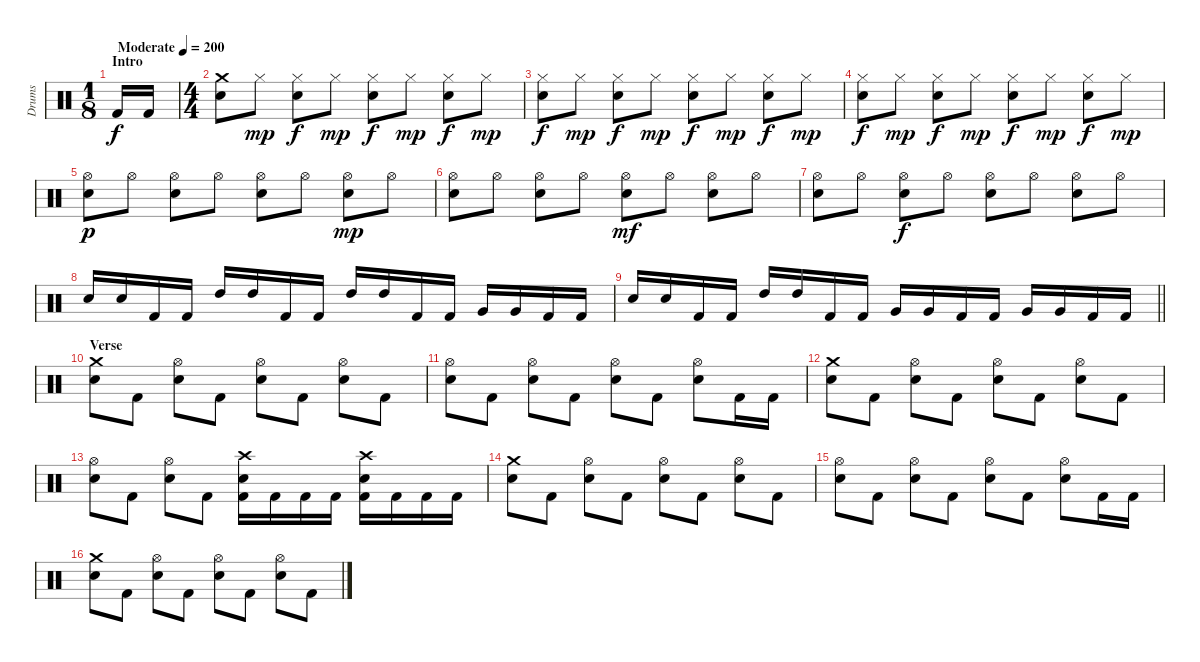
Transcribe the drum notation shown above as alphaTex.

\track ("Drums" "Drums") {instrument percussion}
\staff {score}
\articulation defaults
\ts (1 8)
\section ("" "Intro")
\tempo (200 "Moderate")
\clef neutral
\ks c "Kick (hit) 2".16{dy f} "Kick (hit) 2".16
|
\ts (4 4)
("Crash medium (hit)" "Snare (hit) 2").8 "Hi-Hat (closed)".8{dy mp} ("Hi-Hat (closed)" "Snare (hit) 2").8{dy f} "Hi-Hat (closed)".8{dy mp} ("Hi-Hat (closed)" "Snare (hit) 2").8{dy f} "Hi-Hat (closed)".8{dy mp} ("Hi-Hat (closed)" "Snare (hit) 2").8{dy f} "Hi-Hat (closed)".8{dy mp} |
("Hi-Hat (closed)" "Snare (hit) 2").8{dy f} "Hi-Hat (closed)".8{dy mp} ("Hi-Hat (closed)" "Snare (hit) 2").8{dy f} "Hi-Hat (closed)".8{dy mp} ("Hi-Hat (closed)" "Snare (hit) 2").8{dy f} "Hi-Hat (closed)".8{dy mp} ("Hi-Hat (closed)" "Snare (hit) 2").8{dy f} "Hi-Hat (closed)".8{dy mp} |
("Hi-Hat (closed)" "Snare (hit) 2").8{dy f} "Hi-Hat (closed)".8{dy mp} ("Hi-Hat (closed)" "Snare (hit) 2").8{dy f} "Hi-Hat (closed)".8{dy mp} ("Hi-Hat (closed)" "Snare (hit) 2").8{dy f} "Hi-Hat (closed)".8{dy mp} ("Hi-Hat (closed)" "Snare (hit) 2").8{dy f} "Hi-Hat (closed)".8{dy mp} |
("Hi-Hat (open)" "Snare (hit) 2").8{dy p} "Hi-Hat (open)".8 ("Hi-Hat (open)" "Snare (hit) 2").8 "Hi-Hat (open)".8 ("Hi-Hat (open)" "Snare (hit) 2").8 "Hi-Hat (open)".8 ("Hi-Hat (open)" "Snare (hit) 2").8{dy mp} "Hi-Hat (open)".8 |
("Hi-Hat (open)" "Snare (hit) 2").8 "Hi-Hat (open)".8 ("Hi-Hat (open)" "Snare (hit) 2").8 "Hi-Hat (open)".8 ("Hi-Hat (open)" "Snare (hit) 2").8{dy mf} "Hi-Hat (open)".8 ("Hi-Hat (open)" "Snare (hit) 2").8 "Hi-Hat (open)".8 |
("Hi-Hat (open)" "Snare (hit) 2").8 "Hi-Hat (open)".8 ("Hi-Hat (open)" "Snare (hit) 2").8{dy f} "Hi-Hat (open)".8 ("Hi-Hat (open)" "Snare (hit) 2").8 "Hi-Hat (open)".8 ("Hi-Hat (open)" "Snare (hit) 2").8 "Hi-Hat (open)".8 |
"Snare (hit) 2".16 "Snare (hit) 2".16 "Kick (hit) 2".16 "Kick (hit) 2".16 "High Tom (hit)".16 "High Tom (hit)".16 "Kick (hit) 2".16 "Kick (hit) 2".16 "High Tom (hit)".16 "High Tom (hit)".16 "Kick (hit) 2".16 "Kick (hit) 2".16 "Very Low Tom (hit)".16 "Very Low Tom (hit)".16 "Kick (hit) 2".16 "Kick (hit) 2".16 |
\barLineRight lightlight "Snare (hit) 2".16 "Snare (hit) 2".16 "Kick (hit) 2".16 "Kick (hit) 2".16 "High Tom (hit)".16 "High Tom (hit)".16 "Kick (hit) 2".16 "Kick (hit) 2".16 "Very Low Tom (hit)".16 "Very Low Tom (hit)".16 "Kick (hit) 2".16 "Kick (hit) 2".16 "Very Low Tom (hit)".16 "Very Low Tom (hit)".16 "Kick (hit) 2".16 "Kick (hit) 2".16
|
\section ("" "Verse")
("Crash medium (hit)" "Snare (hit) 2").8 "Kick (hit) 2".8 ("Hi-Hat (open)" "Snare (hit) 2").8 "Kick (hit) 2".8 ("Hi-Hat (open)" "Snare (hit) 2").8 "Kick (hit) 2".8 ("Hi-Hat (open)" "Snare (hit) 2").8 "Kick (hit) 2".8 |
("Hi-Hat (open)" "Snare (hit) 2").8 "Kick (hit) 2".8 ("Hi-Hat (open)" "Snare (hit) 2").8 "Kick (hit) 2".8 ("Hi-Hat (open)" "Snare (hit) 2").8 "Kick (hit) 2".8 ("Hi-Hat (open)" "Snare (hit) 2").8 "Kick (hit) 2".16 "Kick (hit) 2".16 |
("Crash medium (hit)" "Snare (hit) 2").8 "Kick (hit) 2".8 ("Hi-Hat (open)" "Snare (hit) 2").8 "Kick (hit) 2".8 ("Hi-Hat (open)" "Snare (hit) 2").8 "Kick (hit) 2".8 ("Hi-Hat (open)" "Snare (hit) 2").8 "Kick (hit) 2".8 |
("Hi-Hat (open)" "Snare (hit) 2").8 "Kick (hit) 2".8 ("Hi-Hat (open)" "Snare (hit) 2").8 "Kick (hit) 2".8 ("Crash high (hit)" "Snare (hit) 2" "Kick (hit) 2").16 "Kick (hit) 2".16 "Kick (hit) 2".16 "Kick (hit) 2".16 ("Crash high (hit)" "Snare (hit) 2" "Kick (hit) 2").16 "Kick (hit) 2".16 "Kick (hit) 2".16 "Kick (hit) 2".16 |
("Crash medium (hit)" "Snare (hit) 2").8 "Kick (hit) 2".8 ("Hi-Hat (open)" "Snare (hit) 2").8 "Kick (hit) 2".8 ("Hi-Hat (open)" "Snare (hit) 2").8 "Kick (hit) 2".8 ("Hi-Hat (open)" "Snare (hit) 2").8 "Kick (hit) 2".8 |
("Hi-Hat (open)" "Snare (hit) 2").8 "Kick (hit) 2".8 ("Hi-Hat (open)" "Snare (hit) 2").8 "Kick (hit) 2".8 ("Hi-Hat (open)" "Snare (hit) 2").8 "Kick (hit) 2".8 ("Hi-Hat (open)" "Snare (hit) 2").8 "Kick (hit) 2".16 "Kick (hit) 2".16 |
("Crash medium (hit)" "Snare (hit) 2").8 "Kick (hit) 2".8 ("Hi-Hat (open)" "Snare (hit) 2").8 "Kick (hit) 2".8 ("Hi-Hat (open)" "Snare (hit) 2").8 "Kick (hit) 2".8 ("Hi-Hat (open)" "Snare (hit) 2").8 "Kick (hit) 2".8
